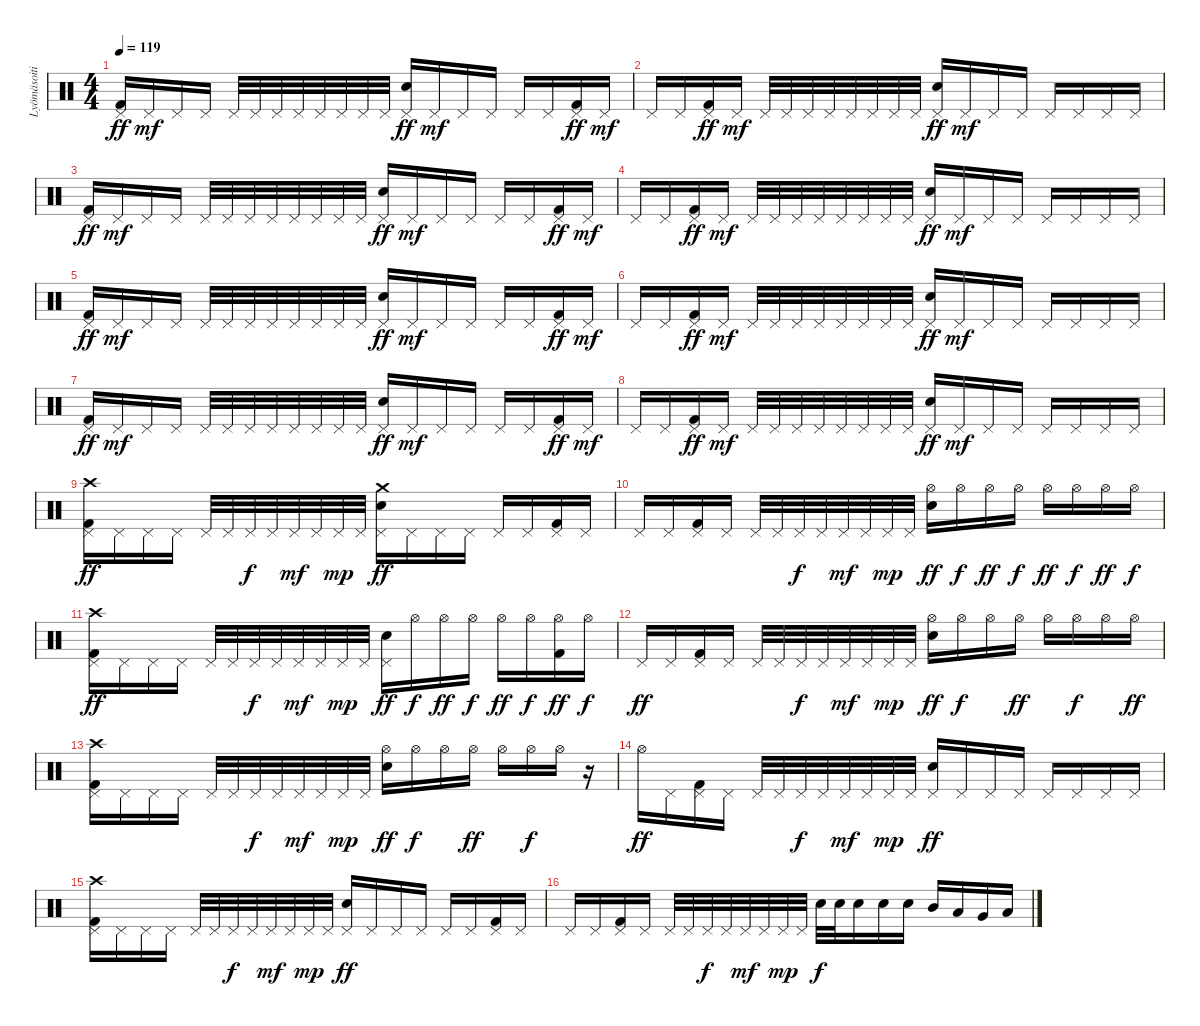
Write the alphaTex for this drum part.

\track ("Lyömäsoitin" "Lyömäsoiti") {instrument percussion}
\staff {score}
\articulation defaults
\ts (4 4)
\tempo 119
\clef neutral
\ks c
("Pedal Hi-Hat (hit)" "Kick (hit) 2").16{dy ff} "Pedal Hi-Hat (hit)".16{dy mf} "Pedal Hi-Hat (hit)".16 "Pedal Hi-Hat (hit)".16 "Pedal Hi-Hat (hit)".32 "Pedal Hi-Hat (hit)".32 "Pedal Hi-Hat (hit)".32 "Pedal Hi-Hat (hit)".32 "Pedal Hi-Hat (hit)".32 "Pedal Hi-Hat (hit)".32 "Pedal Hi-Hat (hit)".32 "Pedal Hi-Hat (hit)".32 ("Pedal Hi-Hat (hit)" "Snare (hit) 2").16{dy ff} "Pedal Hi-Hat (hit)".16{dy mf} "Pedal Hi-Hat (hit)".16 "Pedal Hi-Hat (hit)".16 "Pedal Hi-Hat (hit)".16 "Pedal Hi-Hat (hit)".16 ("Pedal Hi-Hat (hit)" "Kick (hit) 2").16{dy ff} "Pedal Hi-Hat (hit)".16{dy mf} |
"Pedal Hi-Hat (hit)".16 "Pedal Hi-Hat (hit)".16 ("Pedal Hi-Hat (hit)" "Kick (hit) 2").16{dy ff} "Pedal Hi-Hat (hit)".16{dy mf} "Pedal Hi-Hat (hit)".32 "Pedal Hi-Hat (hit)".32 "Pedal Hi-Hat (hit)".32 "Pedal Hi-Hat (hit)".32 "Pedal Hi-Hat (hit)".32 "Pedal Hi-Hat (hit)".32 "Pedal Hi-Hat (hit)".32 "Pedal Hi-Hat (hit)".32 ("Pedal Hi-Hat (hit)" "Snare (hit) 2").16{dy ff} "Pedal Hi-Hat (hit)".16{dy mf} "Pedal Hi-Hat (hit)".16 "Pedal Hi-Hat (hit)".16 "Pedal Hi-Hat (hit)".16 "Pedal Hi-Hat (hit)".16 "Pedal Hi-Hat (hit)".16 "Pedal Hi-Hat (hit)".16 |
("Pedal Hi-Hat (hit)" "Kick (hit) 2").16{dy ff} "Pedal Hi-Hat (hit)".16{dy mf} "Pedal Hi-Hat (hit)".16 "Pedal Hi-Hat (hit)".16 "Pedal Hi-Hat (hit)".32 "Pedal Hi-Hat (hit)".32 "Pedal Hi-Hat (hit)".32 "Pedal Hi-Hat (hit)".32 "Pedal Hi-Hat (hit)".32 "Pedal Hi-Hat (hit)".32 "Pedal Hi-Hat (hit)".32 "Pedal Hi-Hat (hit)".32 ("Pedal Hi-Hat (hit)" "Snare (hit) 2").16{dy ff} "Pedal Hi-Hat (hit)".16{dy mf} "Pedal Hi-Hat (hit)".16 "Pedal Hi-Hat (hit)".16 "Pedal Hi-Hat (hit)".16 "Pedal Hi-Hat (hit)".16 ("Pedal Hi-Hat (hit)" "Kick (hit) 2").16{dy ff} "Pedal Hi-Hat (hit)".16{dy mf} |
"Pedal Hi-Hat (hit)".16 "Pedal Hi-Hat (hit)".16 ("Pedal Hi-Hat (hit)" "Kick (hit) 2").16{dy ff} "Pedal Hi-Hat (hit)".16{dy mf} "Pedal Hi-Hat (hit)".32 "Pedal Hi-Hat (hit)".32 "Pedal Hi-Hat (hit)".32 "Pedal Hi-Hat (hit)".32 "Pedal Hi-Hat (hit)".32 "Pedal Hi-Hat (hit)".32 "Pedal Hi-Hat (hit)".32 "Pedal Hi-Hat (hit)".32 ("Pedal Hi-Hat (hit)" "Snare (hit) 2").16{dy ff} "Pedal Hi-Hat (hit)".16{dy mf} "Pedal Hi-Hat (hit)".16 "Pedal Hi-Hat (hit)".16 "Pedal Hi-Hat (hit)".16 "Pedal Hi-Hat (hit)".16 "Pedal Hi-Hat (hit)".16 "Pedal Hi-Hat (hit)".16 |
("Pedal Hi-Hat (hit)" "Kick (hit) 2").16{dy ff} "Pedal Hi-Hat (hit)".16{dy mf} "Pedal Hi-Hat (hit)".16 "Pedal Hi-Hat (hit)".16 "Pedal Hi-Hat (hit)".32 "Pedal Hi-Hat (hit)".32 "Pedal Hi-Hat (hit)".32 "Pedal Hi-Hat (hit)".32 "Pedal Hi-Hat (hit)".32 "Pedal Hi-Hat (hit)".32 "Pedal Hi-Hat (hit)".32 "Pedal Hi-Hat (hit)".32 ("Pedal Hi-Hat (hit)" "Snare (hit) 2").16{dy ff} "Pedal Hi-Hat (hit)".16{dy mf} "Pedal Hi-Hat (hit)".16 "Pedal Hi-Hat (hit)".16 "Pedal Hi-Hat (hit)".16 "Pedal Hi-Hat (hit)".16 ("Pedal Hi-Hat (hit)" "Kick (hit) 2").16{dy ff} "Pedal Hi-Hat (hit)".16{dy mf} |
"Pedal Hi-Hat (hit)".16 "Pedal Hi-Hat (hit)".16 ("Pedal Hi-Hat (hit)" "Kick (hit) 2").16{dy ff} "Pedal Hi-Hat (hit)".16{dy mf} "Pedal Hi-Hat (hit)".32 "Pedal Hi-Hat (hit)".32 "Pedal Hi-Hat (hit)".32 "Pedal Hi-Hat (hit)".32 "Pedal Hi-Hat (hit)".32 "Pedal Hi-Hat (hit)".32 "Pedal Hi-Hat (hit)".32 "Pedal Hi-Hat (hit)".32 ("Pedal Hi-Hat (hit)" "Snare (hit) 2").16{dy ff} "Pedal Hi-Hat (hit)".16{dy mf} "Pedal Hi-Hat (hit)".16 "Pedal Hi-Hat (hit)".16 "Pedal Hi-Hat (hit)".16 "Pedal Hi-Hat (hit)".16 "Pedal Hi-Hat (hit)".16 "Pedal Hi-Hat (hit)".16 |
("Pedal Hi-Hat (hit)" "Kick (hit) 2").16{dy ff} "Pedal Hi-Hat (hit)".16{dy mf} "Pedal Hi-Hat (hit)".16 "Pedal Hi-Hat (hit)".16 "Pedal Hi-Hat (hit)".32 "Pedal Hi-Hat (hit)".32 "Pedal Hi-Hat (hit)".32 "Pedal Hi-Hat (hit)".32 "Pedal Hi-Hat (hit)".32 "Pedal Hi-Hat (hit)".32 "Pedal Hi-Hat (hit)".32 "Pedal Hi-Hat (hit)".32 ("Pedal Hi-Hat (hit)" "Snare (hit) 2").16{dy ff} "Pedal Hi-Hat (hit)".16{dy mf} "Pedal Hi-Hat (hit)".16 "Pedal Hi-Hat (hit)".16 "Pedal Hi-Hat (hit)".16 "Pedal Hi-Hat (hit)".16 ("Pedal Hi-Hat (hit)" "Kick (hit) 2").16{dy ff} "Pedal Hi-Hat (hit)".16{dy mf} |
"Pedal Hi-Hat (hit)".16 "Pedal Hi-Hat (hit)".16 ("Pedal Hi-Hat (hit)" "Kick (hit) 2").16{dy ff} "Pedal Hi-Hat (hit)".16{dy mf} "Pedal Hi-Hat (hit)".32 "Pedal Hi-Hat (hit)".32 "Pedal Hi-Hat (hit)".32 "Pedal Hi-Hat (hit)".32 "Pedal Hi-Hat (hit)".32 "Pedal Hi-Hat (hit)".32 "Pedal Hi-Hat (hit)".32 "Pedal Hi-Hat (hit)".32 ("Pedal Hi-Hat (hit)" "Snare (hit) 2").16{dy ff} "Pedal Hi-Hat (hit)".16{dy mf} "Pedal Hi-Hat (hit)".16 "Pedal Hi-Hat (hit)".16 "Pedal Hi-Hat (hit)".16 "Pedal Hi-Hat (hit)".16 "Pedal Hi-Hat (hit)".16 "Pedal Hi-Hat (hit)".16 |
("Crash high (hit)" "Pedal Hi-Hat (hit)" "Kick (hit) 2").16{dy ff} "Pedal Hi-Hat (hit)".16 "Pedal Hi-Hat (hit)".16 "Pedal Hi-Hat (hit)".16 "Pedal Hi-Hat (hit)".32 "Pedal Hi-Hat (hit)".32 "Pedal Hi-Hat (hit)".32{dy f} "Pedal Hi-Hat (hit)".32 "Pedal Hi-Hat (hit)".32{dy mf} "Pedal Hi-Hat (hit)".32 "Pedal Hi-Hat (hit)".32{dy mp} "Pedal Hi-Hat (hit)".32 ("Crash medium (hit)" "Pedal Hi-Hat (hit)" "Snare (hit) 2").16{dy ff} "Pedal Hi-Hat (hit)".16 "Pedal Hi-Hat (hit)".16 "Pedal Hi-Hat (hit)".16 "Pedal Hi-Hat (hit)".16 "Pedal Hi-Hat (hit)".16 ("Pedal Hi-Hat (hit)" "Kick (hit) 2").16 "Pedal Hi-Hat (hit)".16 |
"Pedal Hi-Hat (hit)".16 "Pedal Hi-Hat (hit)".16 ("Pedal Hi-Hat (hit)" "Kick (hit) 2").16 "Pedal Hi-Hat (hit)".16 "Pedal Hi-Hat (hit)".32 "Pedal Hi-Hat (hit)".32 "Pedal Hi-Hat (hit)".32{dy f} "Pedal Hi-Hat (hit)".32 "Pedal Hi-Hat (hit)".32{dy mf} "Pedal Hi-Hat (hit)".32 "Pedal Hi-Hat (hit)".32{dy mp} "Pedal Hi-Hat (hit)".32 ("Hi-Hat (open)" "Snare (hit) 2").16{dy ff} "Hi-Hat (open)".16{dy f} "Hi-Hat (open)".16{dy ff} "Hi-Hat (open)".16{dy f} "Hi-Hat (open)".16{dy ff} "Hi-Hat (open)".16{dy f} "Hi-Hat (open)".16{dy ff} "Hi-Hat (open)".16{dy f} |
("Pedal Hi-Hat (hit)" "Crash high (hit)" "Kick (hit) 2").16{dy ff} "Pedal Hi-Hat (hit)".16 "Pedal Hi-Hat (hit)".16 "Pedal Hi-Hat (hit)".16 "Pedal Hi-Hat (hit)".32 "Pedal Hi-Hat (hit)".32 "Pedal Hi-Hat (hit)".32{dy f} "Pedal Hi-Hat (hit)".32 "Pedal Hi-Hat (hit)".32{dy mf} "Pedal Hi-Hat (hit)".32 "Pedal Hi-Hat (hit)".32{dy mp} "Pedal Hi-Hat (hit)".32 ("Pedal Hi-Hat (hit)" "Snare (hit) 2").16{dy ff} "Hi-Hat (open)".16{dy f} "Hi-Hat (open)".16{dy ff} "Hi-Hat (open)".16{dy f} "Hi-Hat (open)".16{dy ff} "Hi-Hat (open)".16{dy f} ("Hi-Hat (open)" "Kick (hit) 2").16{dy ff} "Hi-Hat (open)".16{dy f} |
"Pedal Hi-Hat (hit)".16{dy ff} "Pedal Hi-Hat (hit)".16 ("Pedal Hi-Hat (hit)" "Kick (hit) 2").16 "Pedal Hi-Hat (hit)".16 "Pedal Hi-Hat (hit)".32 "Pedal Hi-Hat (hit)".32 "Pedal Hi-Hat (hit)".32{dy f} "Pedal Hi-Hat (hit)".32 "Pedal Hi-Hat (hit)".32{dy mf} "Pedal Hi-Hat (hit)".32 "Pedal Hi-Hat (hit)".32{dy mp} "Pedal Hi-Hat (hit)".32 ("Hi-Hat (open)" "Snare (hit) 2").16{dy ff} "Hi-Hat (open)".16{dy f} "Hi-Hat (open)".16 "Hi-Hat (open)".16{dy ff} "Hi-Hat (open)".16 "Hi-Hat (open)".16{dy f} "Hi-Hat (open)".16 "Hi-Hat (open)".16{dy ff} |
("Crash high (hit)" "Pedal Hi-Hat (hit)" "Kick (hit) 2").16 "Pedal Hi-Hat (hit)".16 "Pedal Hi-Hat (hit)".16 "Pedal Hi-Hat (hit)".16 "Pedal Hi-Hat (hit)".32 "Pedal Hi-Hat (hit)".32 "Pedal Hi-Hat (hit)".32{dy f} "Pedal Hi-Hat (hit)".32 "Pedal Hi-Hat (hit)".32{dy mf} "Pedal Hi-Hat (hit)".32 "Pedal Hi-Hat (hit)".32{dy mp} "Pedal Hi-Hat (hit)".32 ("Hi-Hat (open)" "Snare (hit) 2").16{dy ff} "Hi-Hat (open)".16{dy f} "Hi-Hat (open)".16 "Hi-Hat (open)".16{dy ff} "Hi-Hat (open)".16 "Hi-Hat (open)".16{dy f} "Hi-Hat (open)".16 r.16 |
"Hi-Hat (open)".16{dy ff} "Pedal Hi-Hat (hit)".16 ("Pedal Hi-Hat (hit)" "Kick (hit) 2").16 "Pedal Hi-Hat (hit)".16 "Pedal Hi-Hat (hit)".32 "Pedal Hi-Hat (hit)".32 "Pedal Hi-Hat (hit)".32{dy f} "Pedal Hi-Hat (hit)".32 "Pedal Hi-Hat (hit)".32{dy mf} "Pedal Hi-Hat (hit)".32 "Pedal Hi-Hat (hit)".32{dy mp} "Pedal Hi-Hat (hit)".32 ("Pedal Hi-Hat (hit)" "Snare (hit) 2").16{dy ff} "Pedal Hi-Hat (hit)".16 "Pedal Hi-Hat (hit)".16 "Pedal Hi-Hat (hit)".16 "Pedal Hi-Hat (hit)".16 "Pedal Hi-Hat (hit)".16 "Pedal Hi-Hat (hit)".16 "Pedal Hi-Hat (hit)".16 |
("Crash high (hit)" "Pedal Hi-Hat (hit)" "Kick (hit) 2").16 "Pedal Hi-Hat (hit)".16 "Pedal Hi-Hat (hit)".16 "Pedal Hi-Hat (hit)".16 "Pedal Hi-Hat (hit)".32 "Pedal Hi-Hat (hit)".32 "Pedal Hi-Hat (hit)".32{dy f} "Pedal Hi-Hat (hit)".32 "Pedal Hi-Hat (hit)".32{dy mf} "Pedal Hi-Hat (hit)".32 "Pedal Hi-Hat (hit)".32{dy mp} "Pedal Hi-Hat (hit)".32 ("Pedal Hi-Hat (hit)" "Snare (hit) 2").16{dy ff} "Pedal Hi-Hat (hit)".16 "Pedal Hi-Hat (hit)".16 "Pedal Hi-Hat (hit)".16 "Pedal Hi-Hat (hit)".16 "Pedal Hi-Hat (hit)".16 ("Pedal Hi-Hat (hit)" "Kick (hit) 2").16 "Pedal Hi-Hat (hit)".16 |
"Pedal Hi-Hat (hit)".16 "Pedal Hi-Hat (hit)".16 ("Pedal Hi-Hat (hit)" "Kick (hit) 2").16 "Pedal Hi-Hat (hit)".16 "Pedal Hi-Hat (hit)".32 "Pedal Hi-Hat (hit)".32 "Pedal Hi-Hat (hit)".32{dy f} "Pedal Hi-Hat (hit)".32 "Pedal Hi-Hat (hit)".32{dy mf} "Pedal Hi-Hat (hit)".32 "Pedal Hi-Hat (hit)".32{dy mp} "Pedal Hi-Hat (hit)".32 "Snare (hit) 2".32{dy f} "Snare (hit) 2".32 "Snare (hit) 2".16 "Snare (hit) 2".16 "Snare (hit) 2".16 "Mid Tom (hit)".16 "Low Tom (hit)".16 "Very Low Tom (hit)".16 "Low Floor Tom (hit)".16
